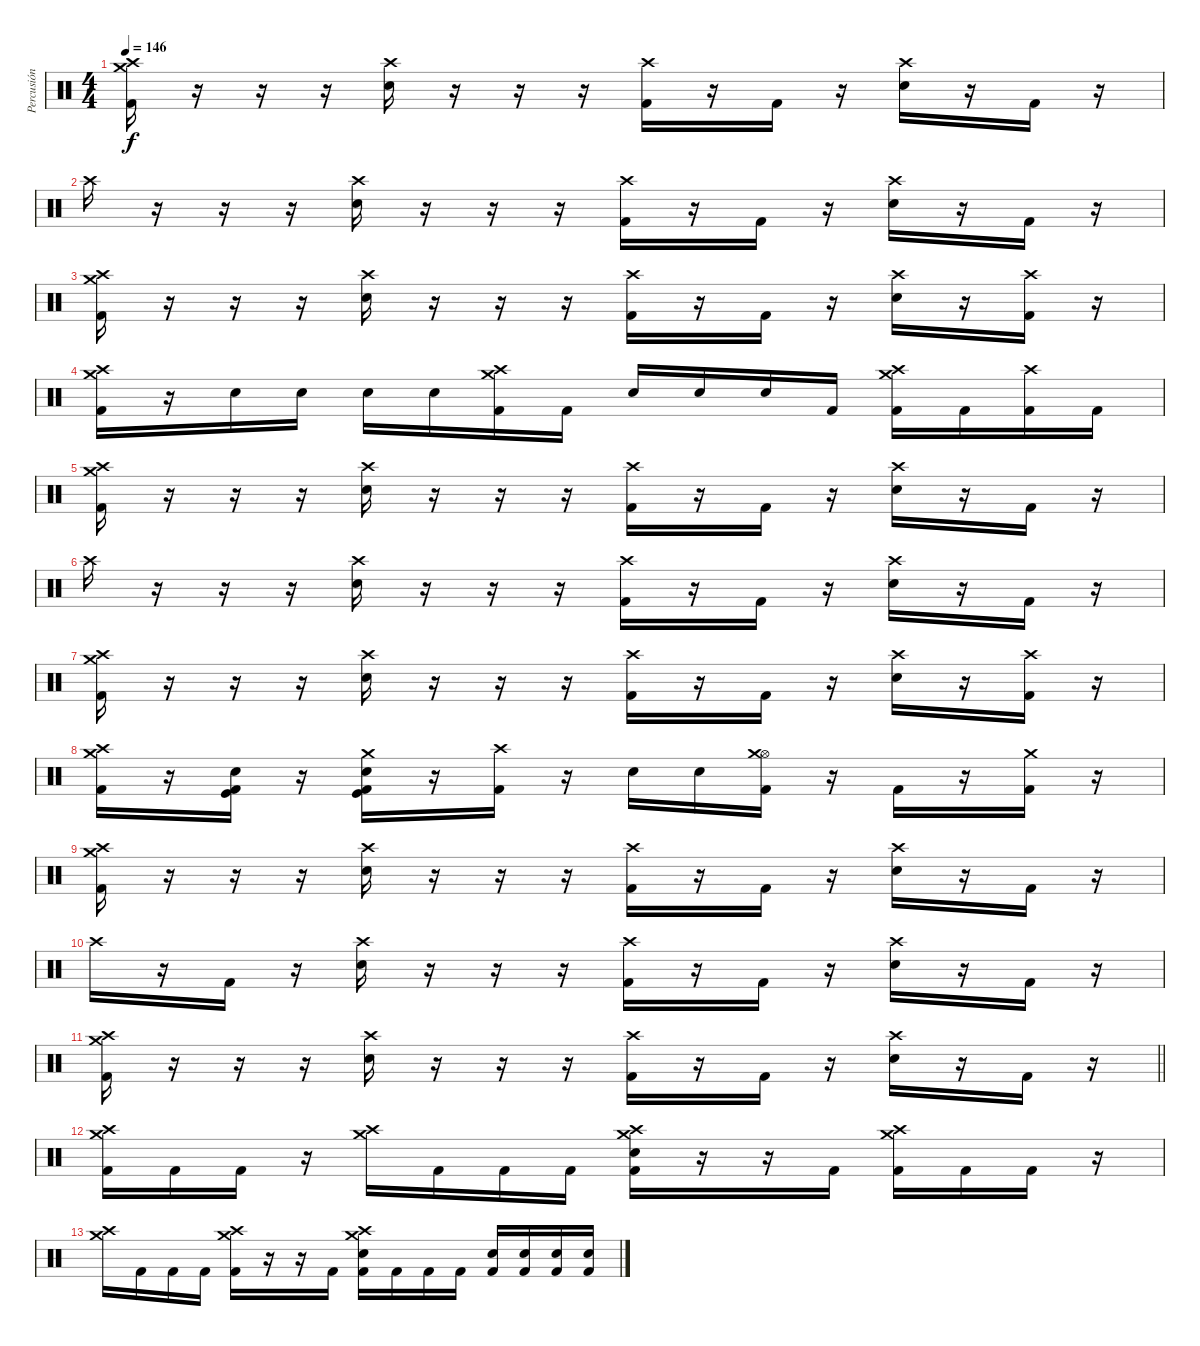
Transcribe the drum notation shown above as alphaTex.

\track ("Percusión" "Percusión") {instrument percussion}
\staff {score}
\articulation defaults
\ts (4 4)
\tempo 146
\clef neutral
\ks c
("Crash high (hit)" "Crash medium (hit)" "Kick (hit) 2").16{dy f} r.16 r.16 r.16 ("Crash high (hit)" "Electric Snare (hit)").16 r.16 r.16 r.16 ("Crash high (hit)" "Kick (hit) 2").16 r.16 "Kick (hit) 2".16 r.16 ("Crash high (hit)" "Electric Snare (hit)").16 r.16 "Kick (hit) 2".16 r.16 |
"Crash high (hit)".16 r.16 r.16 r.16 ("Crash high (hit)" "Electric Snare (hit)").16 r.16 r.16 r.16 ("Crash high (hit)" "Kick (hit) 2").16 r.16 "Kick (hit) 2".16 r.16 ("Crash high (hit)" "Electric Snare (hit)").16 r.16 "Kick (hit) 2".16 r.16 |
("Crash high (hit)" "Crash medium (hit)" "Kick (hit) 2").16 r.16 r.16 r.16 ("Crash high (hit)" "Electric Snare (hit)").16 r.16 r.16 r.16 ("Crash high (hit)" "Kick (hit) 2").16 r.16 "Kick (hit) 2".16 r.16 ("Crash high (hit)" "Electric Snare (hit)").16 r.16 ("Crash high (hit)" "Kick (hit) 2").16 r.16 |
("Crash high (hit)" "Crash medium (hit)" "Kick (hit) 2").16 r.16 "Electric Snare (hit)".16 "Electric Snare (hit)".16 "Electric Snare (hit)".16 "Electric Snare (hit)".16 ("Crash high (hit)" "Crash medium (hit)" "Kick (hit) 2").16 "Kick (hit) 2".16 "Electric Snare (hit)".16 "Electric Snare (hit)".16 "Electric Snare (hit)".16 "Kick (hit) 2".16 ("Crash high (hit)" "Crash medium (hit)" "Kick (hit) 2").16 "Kick (hit) 2".16 ("Crash high (hit)" "Kick (hit) 2").16 "Kick (hit) 2".16 |
("Crash high (hit)" "Crash medium (hit)" "Kick (hit) 2").16 r.16 r.16 r.16 ("Crash high (hit)" "Electric Snare (hit)").16 r.16 r.16 r.16 ("Crash high (hit)" "Kick (hit) 2").16 r.16 "Kick (hit) 2".16 r.16 ("Crash high (hit)" "Electric Snare (hit)").16 r.16 "Kick (hit) 2".16 r.16 |
"Crash high (hit)".16 r.16 r.16 r.16 ("Crash high (hit)" "Electric Snare (hit)").16 r.16 r.16 r.16 ("Crash high (hit)" "Kick (hit) 2").16 r.16 "Kick (hit) 2".16 r.16 ("Crash high (hit)" "Electric Snare (hit)").16 r.16 "Kick (hit) 2".16 r.16 |
("Crash high (hit)" "Crash medium (hit)" "Kick (hit) 2").16 r.16 r.16 r.16 ("Crash high (hit)" "Electric Snare (hit)").16 r.16 r.16 r.16 ("Crash high (hit)" "Kick (hit) 2").16 r.16 "Kick (hit) 2".16 r.16 ("Crash high (hit)" "Electric Snare (hit)").16 r.16 ("Crash high (hit)" "Kick (hit) 2").16 r.16 |
("Crash high (hit)" "Crash medium (hit)" "Kick (hit) 2").16 r.16 ("Electric Snare (hit)" "Kick (hit)" "Kick (hit) 2").16 r.16 ("Crash medium (hit)" "Electric Snare (hit)" "Kick (hit)" "Kick (hit) 2").16 r.16 ("Crash high (hit)" "Kick (hit) 2").16 r.16 "Electric Snare (hit)".16 "Electric Snare (hit)".16 ("Hi-Hat (open)" "Crash medium (hit)" "Kick (hit) 2").16 r.16 "Kick (hit) 2".16 r.16 ("Crash medium (hit)" "Kick (hit) 2").16 r.16 |
("Crash high (hit)" "Crash medium (hit)" "Kick (hit) 2").16 r.16 r.16 r.16 ("Crash high (hit)" "Electric Snare (hit)").16 r.16 r.16 r.16 ("Crash high (hit)" "Kick (hit) 2").16 r.16 "Kick (hit) 2".16 r.16 ("Crash high (hit)" "Electric Snare (hit)").16 r.16 "Kick (hit) 2".16 r.16 |
"Crash high (hit)".16 r.16 "Kick (hit) 2".16 r.16 ("Crash high (hit)" "Electric Snare (hit)").16 r.16 r.16 r.16 ("Crash high (hit)" "Kick (hit) 2").16 r.16 "Kick (hit) 2".16 r.16 ("Crash high (hit)" "Electric Snare (hit)").16 r.16 "Kick (hit) 2".16 r.16 |
\barLineRight lightlight
("Crash high (hit)" "Crash medium (hit)" "Kick (hit) 2").16 r.16 r.16 r.16 ("Crash high (hit)" "Electric Snare (hit)").16 r.16 r.16 r.16 ("Crash high (hit)" "Kick (hit) 2").16 r.16 "Kick (hit) 2".16 r.16 ("Crash high (hit)" "Electric Snare (hit)").16 r.16 "Kick (hit) 2".16 r.16 |
("Crash medium (hit)" "Crash high (hit)" "Kick (hit) 2").16 "Kick (hit) 2".16 "Kick (hit) 2".16 r.16 ("Crash medium (hit)" "Crash high (hit)").16 "Kick (hit) 2".16 "Kick (hit) 2".16 "Kick (hit) 2".16 ("Crash medium (hit)" "Crash high (hit)" "Electric Snare (hit)" "Kick (hit) 2").16 r.16 r.16 "Kick (hit) 2".16 ("Crash medium (hit)" "Crash high (hit)" "Kick (hit) 2").16 "Kick (hit) 2".16 "Kick (hit) 2".16 r.16 |
("Crash high (hit)" "Crash medium (hit)").16 "Kick (hit) 2".16 "Kick (hit) 2".16 "Kick (hit) 2".16 ("Crash medium (hit)" "Crash high (hit)" "Kick (hit) 2").16 r.16 r.16 "Kick (hit) 2".16 ("Crash medium (hit)" "Crash high (hit)" "Electric Snare (hit)" "Kick (hit) 2").16 "Kick (hit) 2".16 "Kick (hit) 2".16 "Kick (hit) 2".16 ("Electric Snare (hit)" "Kick (hit) 2").16 ("Electric Snare (hit)" "Kick (hit) 2").16 ("Electric Snare (hit)" "Kick (hit) 2").16 ("Electric Snare (hit)" "Kick (hit) 2").16
